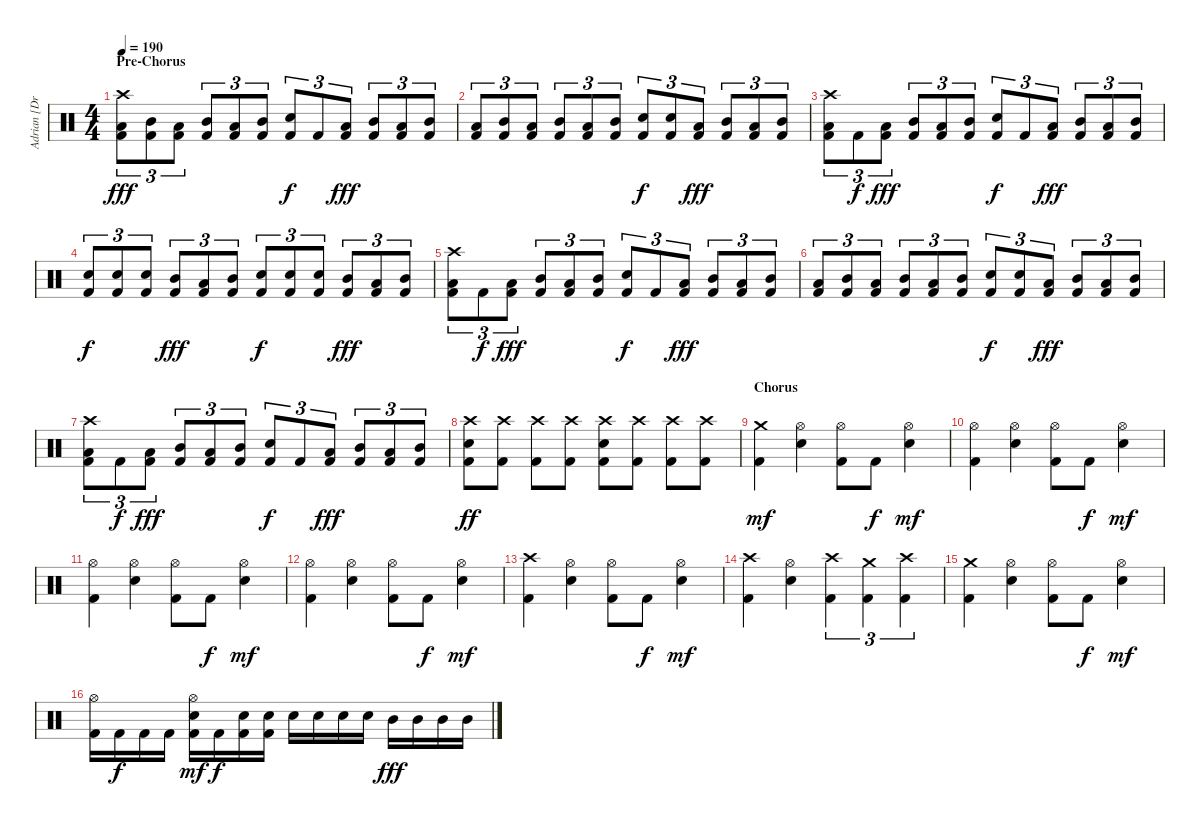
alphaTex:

\track ("Adrian [Drums]" "Adrian [Dr") {instrument percussion}
\staff {score}
\articulation defaults
\ts (4 4)
\section ("" "Pre-Chorus")
\tempo 190
\clef neutral
\ks c
("Crash high (hit)" "Low Tom (hit)" "Kick (hit) 2").8{tu (3 2) dy fff} ("Mid Tom (hit)" "Kick (hit) 2").8{tu (3 2)} ("Low Tom (hit)" "Kick (hit) 2").8{tu (3 2)} ("Mid Tom (hit)" "Kick (hit) 2").8{tu (3 2)} ("Low Tom (hit)" "Kick (hit) 2").8{tu (3 2)} ("Mid Tom (hit)" "Kick (hit) 2").8{tu (3 2)} ("Electric Snare (hit)" "Kick (hit) 2").8{tu (3 2) dy f} "Kick (hit) 2".8{tu (3 2)} ("Low Tom (hit)" "Kick (hit) 2").8{tu (3 2) dy fff} ("Mid Tom (hit)" "Kick (hit) 2").8{tu (3 2)} ("Low Tom (hit)" "Kick (hit) 2").8{tu (3 2)} ("Mid Tom (hit)" "Kick (hit) 2").8{tu (3 2)} |
("Low Tom (hit)" "Kick (hit) 2").8{tu (3 2)} ("Mid Tom (hit)" "Kick (hit) 2").8{tu (3 2)} ("Low Tom (hit)" "Kick (hit) 2").8{tu (3 2)} ("Mid Tom (hit)" "Kick (hit) 2").8{tu (3 2)} ("Low Tom (hit)" "Kick (hit) 2").8{tu (3 2)} ("Mid Tom (hit)" "Kick (hit) 2").8{tu (3 2)} ("Electric Snare (hit)" "Kick (hit) 2").8{tu (3 2) dy f} ("Electric Snare (hit)" "Kick (hit) 2").8{tu (3 2)} ("Low Tom (hit)" "Kick (hit) 2").8{tu (3 2) dy fff} ("Mid Tom (hit)" "Kick (hit) 2").8{tu (3 2)} ("Low Tom (hit)" "Kick (hit) 2").8{tu (3 2)} ("Mid Tom (hit)" "Kick (hit) 2").8{tu (3 2)} |
("Crash high (hit)" "Low Tom (hit)" "Kick (hit) 2").8{tu (3 2)} "Kick (hit) 2".8{tu (3 2) dy f} ("Low Tom (hit)" "Kick (hit) 2").8{tu (3 2) dy fff} ("Mid Tom (hit)" "Kick (hit) 2").8{tu (3 2)} ("Low Tom (hit)" "Kick (hit) 2").8{tu (3 2)} ("Mid Tom (hit)" "Kick (hit) 2").8{tu (3 2)} ("Electric Snare (hit)" "Kick (hit) 2").8{tu (3 2) dy f} "Kick (hit) 2".8{tu (3 2)} ("Low Tom (hit)" "Kick (hit) 2").8{tu (3 2) dy fff} ("Mid Tom (hit)" "Kick (hit) 2").8{tu (3 2)} ("Low Tom (hit)" "Kick (hit) 2").8{tu (3 2)} ("Mid Tom (hit)" "Kick (hit) 2").8{tu (3 2)} |
("Electric Snare (hit)" "Kick (hit) 2").8{tu (3 2) dy f} ("Electric Snare (hit)" "Kick (hit) 2").8{tu (3 2)} ("Electric Snare (hit)" "Kick (hit) 2").8{tu (3 2)} ("Mid Tom (hit)" "Kick (hit) 2").8{tu (3 2) dy fff} ("Low Tom (hit)" "Kick (hit) 2").8{tu (3 2)} ("Mid Tom (hit)" "Kick (hit) 2").8{tu (3 2)} ("Electric Snare (hit)" "Kick (hit) 2").8{tu (3 2) dy f} ("Electric Snare (hit)" "Kick (hit) 2").8{tu (3 2)} ("Electric Snare (hit)" "Kick (hit) 2").8{tu (3 2)} ("Mid Tom (hit)" "Kick (hit) 2").8{tu (3 2) dy fff} ("Low Tom (hit)" "Kick (hit) 2").8{tu (3 2)} ("Mid Tom (hit)" "Kick (hit) 2").8{tu (3 2)} |
("Crash high (hit)" "Low Tom (hit)" "Kick (hit) 2").8{tu (3 2)} "Kick (hit) 2".8{tu (3 2) dy f} ("Low Tom (hit)" "Kick (hit) 2").8{tu (3 2) dy fff} ("Mid Tom (hit)" "Kick (hit) 2").8{tu (3 2)} ("Low Tom (hit)" "Kick (hit) 2").8{tu (3 2)} ("Mid Tom (hit)" "Kick (hit) 2").8{tu (3 2)} ("Electric Snare (hit)" "Kick (hit) 2").8{tu (3 2) dy f} "Kick (hit) 2".8{tu (3 2)} ("Low Tom (hit)" "Kick (hit) 2").8{tu (3 2) dy fff} ("Mid Tom (hit)" "Kick (hit) 2").8{tu (3 2)} ("Low Tom (hit)" "Kick (hit) 2").8{tu (3 2)} ("Mid Tom (hit)" "Kick (hit) 2").8{tu (3 2)} |
("Low Tom (hit)" "Kick (hit) 2").8{tu (3 2)} ("Mid Tom (hit)" "Kick (hit) 2").8{tu (3 2)} ("Low Tom (hit)" "Kick (hit) 2").8{tu (3 2)} ("Mid Tom (hit)" "Kick (hit) 2").8{tu (3 2)} ("Low Tom (hit)" "Kick (hit) 2").8{tu (3 2)} ("Mid Tom (hit)" "Kick (hit) 2").8{tu (3 2)} ("Electric Snare (hit)" "Kick (hit) 2").8{tu (3 2) dy f} ("Electric Snare (hit)" "Kick (hit) 2").8{tu (3 2)} ("Low Tom (hit)" "Kick (hit) 2").8{tu (3 2) dy fff} ("Mid Tom (hit)" "Kick (hit) 2").8{tu (3 2)} ("Low Tom (hit)" "Kick (hit) 2").8{tu (3 2)} ("Mid Tom (hit)" "Kick (hit) 2").8{tu (3 2)} |
("Crash high (hit)" "Low Tom (hit)" "Kick (hit) 2").8{tu (3 2)} "Kick (hit) 2".8{tu (3 2) dy f} ("Low Tom (hit)" "Kick (hit) 2").8{tu (3 2) dy fff} ("Mid Tom (hit)" "Kick (hit) 2").8{tu (3 2)} ("Low Tom (hit)" "Kick (hit) 2").8{tu (3 2)} ("Mid Tom (hit)" "Kick (hit) 2").8{tu (3 2)} ("Electric Snare (hit)" "Kick (hit) 2").8{tu (3 2) dy f} "Kick (hit) 2".8{tu (3 2)} ("Low Tom (hit)" "Kick (hit) 2").8{tu (3 2) dy fff} ("Mid Tom (hit)" "Kick (hit) 2").8{tu (3 2)} ("Low Tom (hit)" "Kick (hit) 2").8{tu (3 2)} ("Mid Tom (hit)" "Kick (hit) 2").8{tu (3 2)} |
("Crash high (hit)" "Electric Snare (hit)" "Kick (hit) 2").8{dy ff} ("Crash high (hit)" "Kick (hit) 2").8 ("Crash high (hit)" "Kick (hit) 2").8 ("Crash high (hit)" "Kick (hit) 2").8 ("Crash high (hit)" "Electric Snare (hit)" "Kick (hit) 2").8 ("Crash high (hit)" "Kick (hit) 2").8 ("Crash high (hit)" "Kick (hit) 2").8 ("Crash high (hit)" "Kick (hit) 2").8 |
\section ("" "Chorus")
("Crash medium (hit)" "Kick (hit) 2").4{dy mf} ("Hi-Hat (open)" "Electric Snare (hit)").4 ("Hi-Hat (open)" "Kick (hit) 2").8 "Kick (hit) 2".8{dy f} ("Hi-Hat (open)" "Electric Snare (hit)").4{dy mf} |
("Hi-Hat (open)" "Kick (hit) 2").4 ("Hi-Hat (open)" "Electric Snare (hit)").4 ("Hi-Hat (open)" "Kick (hit) 2").8 "Kick (hit) 2".8{dy f} ("Hi-Hat (open)" "Electric Snare (hit)").4{dy mf} |
("Hi-Hat (open)" "Kick (hit) 2").4 ("Hi-Hat (open)" "Electric Snare (hit)").4 ("Hi-Hat (open)" "Kick (hit) 2").8 "Kick (hit) 2".8{dy f} ("Hi-Hat (open)" "Electric Snare (hit)").4{dy mf} |
("Hi-Hat (open)" "Kick (hit) 2").4 ("Hi-Hat (open)" "Electric Snare (hit)").4 ("Hi-Hat (open)" "Kick (hit) 2").8 "Kick (hit) 2".8{dy f} ("Hi-Hat (open)" "Electric Snare (hit)").4{dy mf} |
("Crash high (hit)" "Kick (hit) 2").4 ("Hi-Hat (open)" "Electric Snare (hit)").4 ("Hi-Hat (open)" "Kick (hit) 2").8 "Kick (hit) 2".8{dy f} ("Hi-Hat (open)" "Electric Snare (hit)").4{dy mf} |
("Crash high (hit)" "Kick (hit) 2").4 ("Hi-Hat (open)" "Electric Snare (hit)").4 ("Crash high (hit)" "Kick (hit) 2").4{tu (3 2)} ("Crash medium (hit)" "Kick (hit) 2").4{tu (3 2)} ("Crash high (hit)" "Kick (hit) 2").4{tu (3 2)} |
("Crash medium (hit)" "Kick (hit) 2").4 ("Hi-Hat (open)" "Electric Snare (hit)").4 ("Hi-Hat (open)" "Kick (hit) 2").8 "Kick (hit) 2".8{dy f} ("Hi-Hat (open)" "Electric Snare (hit)").4{dy mf} |
("Hi-Hat (open)" "Kick (hit) 2").16 "Kick (hit) 2".16{dy f} "Kick (hit) 2".16 "Kick (hit) 2".16 ("Hi-Hat (open)" "Electric Snare (hit)" "Kick (hit) 2").16{dy mf} "Kick (hit) 2".16{dy f} ("Electric Snare (hit)" "Kick (hit) 2").16 ("Electric Snare (hit)" "Kick (hit) 2").16 "Electric Snare (hit)".16 "Electric Snare (hit)".16 "Electric Snare (hit)".16 "Electric Snare (hit)".16 "Mid Tom (hit)".16{dy fff} "Mid Tom (hit)".16 "Mid Tom (hit)".16 "Mid Tom (hit)".16
